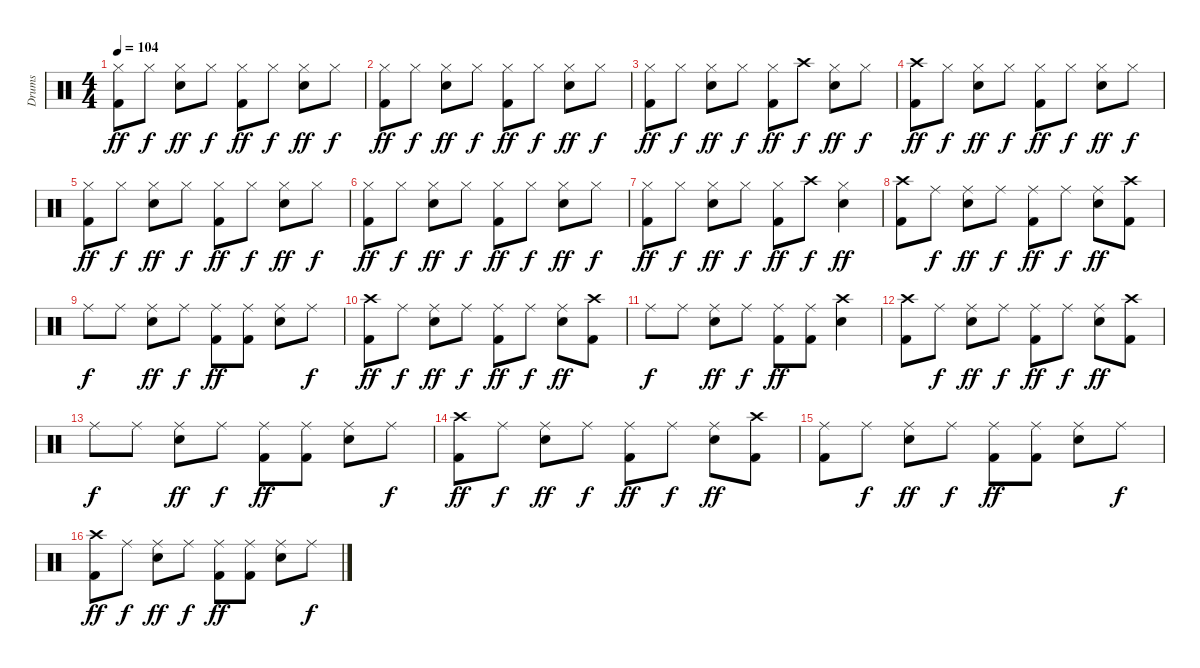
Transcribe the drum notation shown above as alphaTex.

\track ("Drums" "Drums") {instrument percussion}
\staff {score}
\articulation defaults
\ts (4 4)
\tempo 104
\clef neutral
\ks c
("Hi-Hat (closed)" "Kick (hit) 2").8{dy ff} "Hi-Hat (closed)".8{dy f} ("Hi-Hat (closed)" "Snare (hit) 2").8{dy ff} "Hi-Hat (closed)".8{dy f} ("Hi-Hat (closed)" "Kick (hit) 2").8{dy ff} "Hi-Hat (closed)".8{dy f} ("Hi-Hat (closed)" "Snare (hit) 2").8{dy ff} "Hi-Hat (closed)".8{dy f} |
("Hi-Hat (closed)" "Kick (hit) 2").8{dy ff} "Hi-Hat (closed)".8{dy f} ("Hi-Hat (closed)" "Snare (hit) 2").8{dy ff} "Hi-Hat (closed)".8{dy f} ("Hi-Hat (closed)" "Kick (hit) 2").8{dy ff} "Hi-Hat (closed)".8{dy f} ("Hi-Hat (closed)" "Snare (hit) 2").8{dy ff} "Hi-Hat (closed)".8{dy f} |
("Hi-Hat (closed)" "Kick (hit) 2").8{dy ff} "Hi-Hat (closed)".8{dy f} ("Hi-Hat (closed)" "Snare (hit) 2").8{dy ff} "Hi-Hat (closed)".8{dy f} ("Hi-Hat (closed)" "Kick (hit) 2").8{dy ff} "Crash high (hit)".8{dy f} ("Hi-Hat (closed)" "Snare (hit) 2").8{dy ff} "Hi-Hat (closed)".8{dy f} |
("Crash high (hit)" "Kick (hit) 2").8{dy ff} "Hi-Hat (closed)".8{dy f} ("Hi-Hat (closed)" "Snare (hit) 2").8{dy ff} "Hi-Hat (closed)".8{dy f} ("Hi-Hat (closed)" "Kick (hit) 2").8{dy ff} "Hi-Hat (closed)".8{dy f} ("Hi-Hat (closed)" "Snare (hit) 2").8{dy ff} "Hi-Hat (closed)".8{dy f} |
("Hi-Hat (closed)" "Kick (hit) 2").8{dy ff} "Hi-Hat (closed)".8{dy f} ("Hi-Hat (closed)" "Snare (hit) 2").8{dy ff} "Hi-Hat (closed)".8{dy f} ("Hi-Hat (closed)" "Kick (hit) 2").8{dy ff} "Hi-Hat (closed)".8{dy f} ("Hi-Hat (closed)" "Snare (hit) 2").8{dy ff} "Hi-Hat (closed)".8{dy f} |
("Hi-Hat (closed)" "Kick (hit) 2").8{dy ff} "Hi-Hat (closed)".8{dy f} ("Hi-Hat (closed)" "Snare (hit) 2").8{dy ff} "Hi-Hat (closed)".8{dy f} ("Hi-Hat (closed)" "Kick (hit) 2").8{dy ff} "Hi-Hat (closed)".8{dy f} ("Hi-Hat (closed)" "Snare (hit) 2").8{dy ff} "Hi-Hat (closed)".8{dy f} |
("Hi-Hat (closed)" "Kick (hit) 2").8{dy ff} "Hi-Hat (closed)".8{dy f} ("Hi-Hat (closed)" "Snare (hit) 2").8{dy ff} "Hi-Hat (closed)".8{dy f} ("Hi-Hat (closed)" "Kick (hit) 2").8{dy ff} "Crash high (hit)".8{dy f} ("Hi-Hat (closed)" "Snare (hit) 2").4{dy ff} |
("Crash high (hit)" "Kick (hit) 2").8 "Ride (middle)".8{dy f} ("Ride (middle)" "Snare (hit) 2").8{dy ff} "Ride (middle)".8{dy f} ("Ride (middle)" "Kick (hit) 2").8{dy ff} "Ride (middle)".8{dy f} ("Ride (middle)" "Snare (hit) 2").8{dy ff} ("Crash high (hit)" "Kick (hit) 2").8 |
"Ride (middle)".8{dy f} "Ride (middle)".8 ("Ride (middle)" "Snare (hit) 2").8{dy ff} "Ride (middle)".8{dy f} ("Ride (middle)" "Kick (hit) 2").8{dy ff} ("Ride (middle)" "Kick (hit) 2").8 ("Ride (middle)" "Snare (hit) 2").8 "Ride (middle)".8{dy f} |
("Crash high (hit)" "Kick (hit) 2").8{dy ff} "Ride (middle)".8{dy f} ("Ride (middle)" "Snare (hit) 2").8{dy ff} "Ride (middle)".8{dy f} ("Ride (middle)" "Kick (hit) 2").8{dy ff} "Ride (middle)".8{dy f} ("Ride (middle)" "Snare (hit) 2").8{dy ff} ("Crash high (hit)" "Kick (hit) 2").8 |
"Ride (middle)".8{dy f} "Ride (middle)".8 ("Ride (middle)" "Snare (hit) 2").8{dy ff} "Ride (middle)".8{dy f} ("Ride (middle)" "Kick (hit) 2").8{dy ff} ("Ride (middle)" "Kick (hit) 2").8 ("Crash high (hit)" "Snare (hit) 2").4 |
("Crash high (hit)" "Kick (hit) 2").8 "Ride (middle)".8{dy f} ("Ride (middle)" "Snare (hit) 2").8{dy ff} "Ride (middle)".8{dy f} ("Ride (middle)" "Kick (hit) 2").8{dy ff} "Ride (middle)".8{dy f} ("Ride (middle)" "Snare (hit) 2").8{dy ff} ("Crash high (hit)" "Kick (hit) 2").8 |
"Ride (middle)".8{dy f} "Ride (middle)".8 ("Ride (middle)" "Snare (hit) 2").8{dy ff} "Ride (middle)".8{dy f} ("Ride (middle)" "Kick (hit) 2").8{dy ff} ("Ride (middle)" "Kick (hit) 2").8 ("Ride (middle)" "Snare (hit) 2").8 "Ride (middle)".8{dy f} |
("Crash high (hit)" "Kick (hit) 2").8{dy ff} "Ride (middle)".8{dy f} ("Ride (middle)" "Snare (hit) 2").8{dy ff} "Ride (middle)".8{dy f} ("Ride (middle)" "Kick (hit) 2").8{dy ff} "Ride (middle)".8{dy f} ("Ride (middle)" "Snare (hit) 2").8{dy ff} ("Crash high (hit)" "Kick (hit) 2").8 |
("Ride (middle)" "Kick (hit) 2").8 "Ride (middle)".8{dy f} ("Ride (middle)" "Snare (hit) 2").8{dy ff} "Ride (middle)".8{dy f} ("Ride (middle)" "Kick (hit) 2").8{dy ff} ("Ride (middle)" "Kick (hit) 2").8 ("Ride (middle)" "Snare (hit) 2").8 "Ride (middle)".8{dy f} |
("Crash high (hit)" "Kick (hit) 2").8{dy ff} "Ride (middle)".8{dy f} ("Ride (middle)" "Snare (hit) 2").8{dy ff} "Ride (middle)".8{dy f} ("Ride (middle)" "Kick (hit) 2").8{dy ff} ("Ride (middle)" "Kick (hit) 2").8 ("Ride (middle)" "Snare (hit) 2").8 "Ride (middle)".8{dy f}
